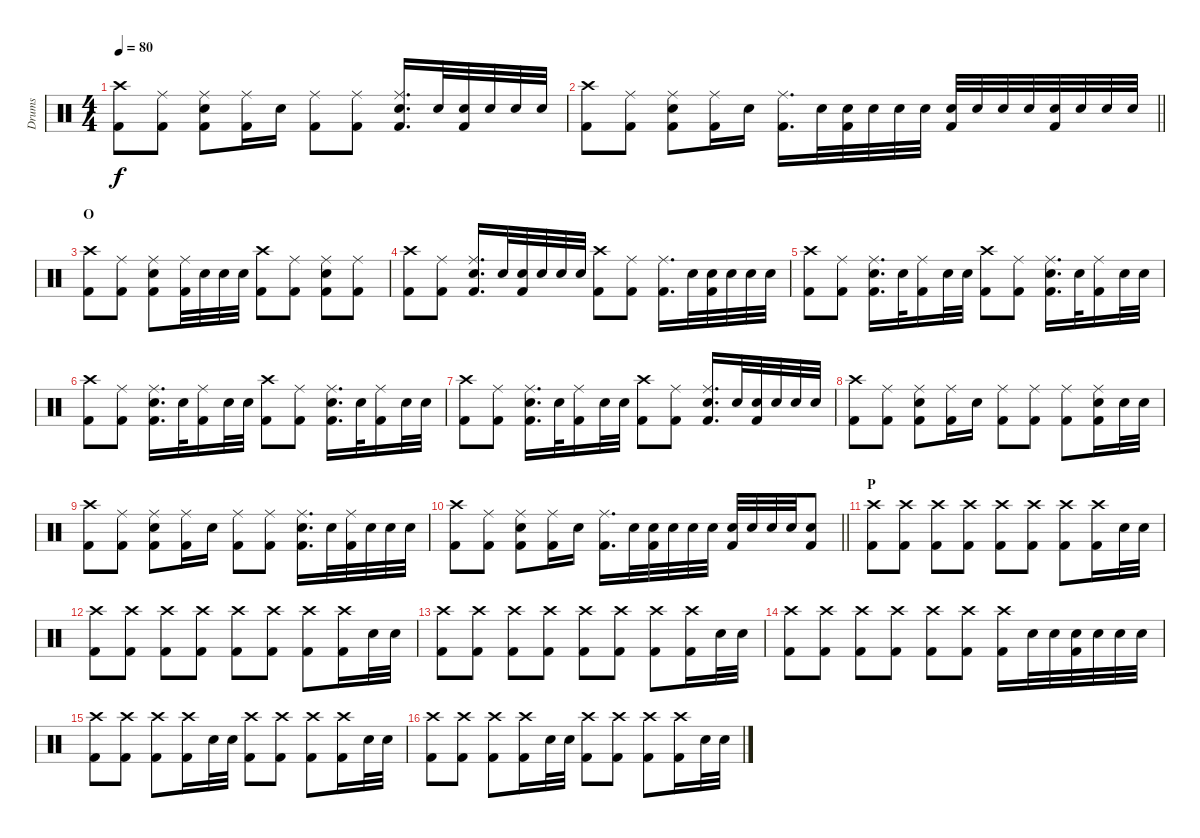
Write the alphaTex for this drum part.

\track ("Drums" "Drums") {instrument percussion}
\staff {score}
\articulation defaults
\ts (4 4)
\tempo 80
\clef neutral
\ks c
("Crash high (hit)" "Kick (hit) 2").8{dy f} ("Ride (middle)" "Kick (hit) 2").8 ("Ride (middle)" "Snare (hit) 2" "Kick (hit) 2").8 ("Ride (middle)" "Kick (hit) 2").16 "Snare (hit) 2".16 ("Ride (middle)" "Kick (hit) 2").8 ("Ride (middle)" "Kick (hit) 2").8 ("Ride (middle)" "Snare (hit) 2" "Kick (hit) 2").16{d} "Snare (hit) 2".32 ("Snare (hit) 2" "Kick (hit) 2").32 "Snare (hit) 2".32 "Snare (hit) 2".32 "Snare (hit) 2".32 |
\barLineRight lightlight
("Crash high (hit)" "Kick (hit) 2").8 ("Ride (middle)" "Kick (hit) 2").8 ("Ride (middle)" "Snare (hit) 2" "Kick (hit) 2").8 ("Ride (middle)" "Kick (hit) 2").16 "Snare (hit) 2".16 ("Ride (middle)" "Kick (hit) 2").16{d} "Snare (hit) 2".32 ("Snare (hit) 2" "Kick (hit) 2").32 "Snare (hit) 2".32 "Snare (hit) 2".32 "Snare (hit) 2".32 ("Snare (hit) 2" "Kick (hit) 2").32 "Snare (hit) 2".32 "Snare (hit) 2".32 "Snare (hit) 2".32 ("Snare (hit) 2" "Kick (hit) 2").32 "Snare (hit) 2".32 "Snare (hit) 2".32 "Snare (hit) 2".32 |
\section ("" "O")
("Crash high (hit)" "Kick (hit) 2").8 ("Ride (middle)" "Kick (hit) 2").8 ("Ride (middle)" "Snare (hit) 2" "Kick (hit) 2").8 ("Ride (middle)" "Kick (hit) 2").32 "Snare (hit) 2".32 "Snare (hit) 2".32 "Snare (hit) 2".32 ("Crash high (hit)" "Kick (hit) 2").8 ("Ride (middle)" "Kick (hit) 2").8 ("Ride (middle)" "Snare (hit) 2" "Kick (hit) 2").8 ("Ride (middle)" "Kick (hit) 2").8 |
("Crash high (hit)" "Kick (hit) 2").8 ("Ride (middle)" "Kick (hit) 2").8 ("Ride (middle)" "Snare (hit) 2" "Kick (hit) 2").16{d} "Snare (hit) 2".32 ("Snare (hit) 2" "Kick (hit) 2").32 "Snare (hit) 2".32 "Snare (hit) 2".32 "Snare (hit) 2".32 ("Crash high (hit)" "Kick (hit) 2").8 ("Ride (middle)" "Kick (hit) 2").8 ("Ride (middle)" "Kick (hit) 2").16{d} "Snare (hit) 2".32 ("Snare (hit) 2" "Kick (hit) 2").32 "Snare (hit) 2".32 "Snare (hit) 2".32 "Snare (hit) 2".32 |
("Crash high (hit)" "Kick (hit) 2").8 ("Ride (middle)" "Kick (hit) 2").8 ("Ride (middle)" "Snare (hit) 2" "Kick (hit) 2").16{d} "Snare (hit) 2".32 ("Ride (middle)" "Kick (hit) 2").16 "Snare (hit) 2".32 "Snare (hit) 2".32 ("Crash high (hit)" "Kick (hit) 2").8 ("Ride (middle)" "Kick (hit) 2").8 ("Ride (middle)" "Snare (hit) 2" "Kick (hit) 2").16{d} "Snare (hit) 2".32 ("Ride (middle)" "Kick (hit) 2").16 "Snare (hit) 2".32 "Snare (hit) 2".32 |
("Crash high (hit)" "Kick (hit) 2").8 ("Ride (middle)" "Kick (hit) 2").8 ("Ride (middle)" "Snare (hit) 2" "Kick (hit) 2").16{d} "Snare (hit) 2".32 ("Ride (middle)" "Kick (hit) 2").16 "Snare (hit) 2".32 "Snare (hit) 2".32 ("Crash high (hit)" "Kick (hit) 2").8 ("Ride (middle)" "Kick (hit) 2").8 ("Ride (middle)" "Snare (hit) 2" "Kick (hit) 2").16{d} "Snare (hit) 2".32 ("Ride (middle)" "Kick (hit) 2").16 "Snare (hit) 2".32 "Snare (hit) 2".32 |
("Crash high (hit)" "Kick (hit) 2").8 ("Ride (middle)" "Kick (hit) 2").8 ("Ride (middle)" "Snare (hit) 2" "Kick (hit) 2").16{d} "Snare (hit) 2".32 ("Ride (middle)" "Kick (hit) 2").16 "Snare (hit) 2".32 "Snare (hit) 2".32 ("Crash high (hit)" "Kick (hit) 2").8 ("Ride (middle)" "Kick (hit) 2").8 ("Ride (middle)" "Snare (hit) 2" "Kick (hit) 2").16{d} "Snare (hit) 2".32 ("Snare (hit) 2" "Kick (hit) 2").32 "Snare (hit) 2".32 "Snare (hit) 2".32 "Snare (hit) 2".32 |
("Crash high (hit)" "Kick (hit) 2").8 ("Ride (middle)" "Kick (hit) 2").8 ("Ride (middle)" "Snare (hit) 2" "Kick (hit) 2").8 ("Ride (middle)" "Kick (hit) 2").16 "Snare (hit) 2".16 ("Ride (middle)" "Kick (hit) 2").8 ("Ride (middle)" "Kick (hit) 2").8 ("Ride (middle)" "Kick (hit) 2").8 ("Ride (middle)" "Snare (hit) 2" "Kick (hit) 2").16 "Snare (hit) 2".32 "Snare (hit) 2".32 |
("Crash high (hit)" "Kick (hit) 2").8 ("Ride (middle)" "Kick (hit) 2").8 ("Ride (middle)" "Snare (hit) 2" "Kick (hit) 2").8 ("Ride (middle)" "Kick (hit) 2").16 "Snare (hit) 2".16 ("Ride (middle)" "Kick (hit) 2").8 ("Ride (middle)" "Kick (hit) 2").8 ("Ride (middle)" "Snare (hit) 2" "Kick (hit) 2").16{d} "Snare (hit) 2".32 ("Ride (middle)" "Kick (hit) 2").32 "Snare (hit) 2".32 "Snare (hit) 2".32 "Snare (hit) 2".32 |
\barLineRight lightlight
("Crash high (hit)" "Kick (hit) 2").8 ("Ride (middle)" "Kick (hit) 2").8 ("Ride (middle)" "Snare (hit) 2" "Kick (hit) 2").8 ("Ride (middle)" "Kick (hit) 2").16 "Snare (hit) 2".16 ("Ride (middle)" "Kick (hit) 2").16{d} "Snare (hit) 2".32 ("Snare (hit) 2" "Kick (hit) 2").32 "Snare (hit) 2".32 "Snare (hit) 2".32 "Snare (hit) 2".32 ("Snare (hit) 2" "Kick (hit) 2").32 "Snare (hit) 2".32 "Snare (hit) 2".32 "Snare (hit) 2".32 ("Snare (hit) 2" "Kick (hit) 2").8 |
\section ("" "P")
("Crash high (hit)" "Kick (hit) 2").8 ("Crash high (hit)" "Kick (hit) 2").8 ("Crash high (hit)" "Kick (hit) 2").8 ("Crash high (hit)" "Kick (hit) 2").8 ("Crash high (hit)" "Kick (hit) 2").8 ("Crash high (hit)" "Kick (hit) 2").8 ("Crash high (hit)" "Kick (hit) 2").8 ("Crash high (hit)" "Kick (hit) 2").16 "Snare (hit) 2".32 "Snare (hit) 2".32 |
("Crash high (hit)" "Kick (hit) 2").8 ("Crash high (hit)" "Kick (hit) 2").8 ("Crash high (hit)" "Kick (hit) 2").8 ("Crash high (hit)" "Kick (hit) 2").8 ("Crash high (hit)" "Kick (hit) 2").8 ("Crash high (hit)" "Kick (hit) 2").8 ("Crash high (hit)" "Kick (hit) 2").8 ("Crash high (hit)" "Kick (hit) 2").16 "Snare (hit) 2".32 "Snare (hit) 2".32 |
("Crash high (hit)" "Kick (hit) 2").8 ("Crash high (hit)" "Kick (hit) 2").8 ("Crash high (hit)" "Kick (hit) 2").8 ("Crash high (hit)" "Kick (hit) 2").8 ("Crash high (hit)" "Kick (hit) 2").8 ("Crash high (hit)" "Kick (hit) 2").8 ("Crash high (hit)" "Kick (hit) 2").8 ("Crash high (hit)" "Kick (hit) 2").16 "Snare (hit) 2".32 "Snare (hit) 2".32 |
("Crash high (hit)" "Kick (hit) 2").8 ("Crash high (hit)" "Kick (hit) 2").8 ("Crash high (hit)" "Kick (hit) 2").8 ("Crash high (hit)" "Kick (hit) 2").8 ("Crash high (hit)" "Kick (hit) 2").8 ("Crash high (hit)" "Kick (hit) 2").8 ("Crash high (hit)" "Kick (hit) 2").16 "Snare (hit) 2".32 "Snare (hit) 2".32 ("Snare (hit) 2" "Kick (hit) 2").32 "Snare (hit) 2".32 "Snare (hit) 2".32 "Snare (hit) 2".32 |
("Crash high (hit)" "Kick (hit) 2").8 ("Crash high (hit)" "Kick (hit) 2").8 ("Crash high (hit)" "Kick (hit) 2").8 ("Crash high (hit)" "Kick (hit) 2").16 "Snare (hit) 2".32 "Snare (hit) 2".32 ("Crash high (hit)" "Kick (hit) 2").8 ("Crash high (hit)" "Kick (hit) 2").8 ("Crash high (hit)" "Kick (hit) 2").8 ("Crash high (hit)" "Kick (hit) 2").16 "Snare (hit) 2".32 "Snare (hit) 2".32 |
("Crash high (hit)" "Kick (hit) 2").8 ("Crash high (hit)" "Kick (hit) 2").8 ("Crash high (hit)" "Kick (hit) 2").8 ("Crash high (hit)" "Kick (hit) 2").16 "Snare (hit) 2".32 "Snare (hit) 2".32 ("Crash high (hit)" "Kick (hit) 2").8 ("Crash high (hit)" "Kick (hit) 2").8 ("Crash high (hit)" "Kick (hit) 2").8 ("Crash high (hit)" "Kick (hit) 2").16 "Snare (hit) 2".32 "Snare (hit) 2".32
